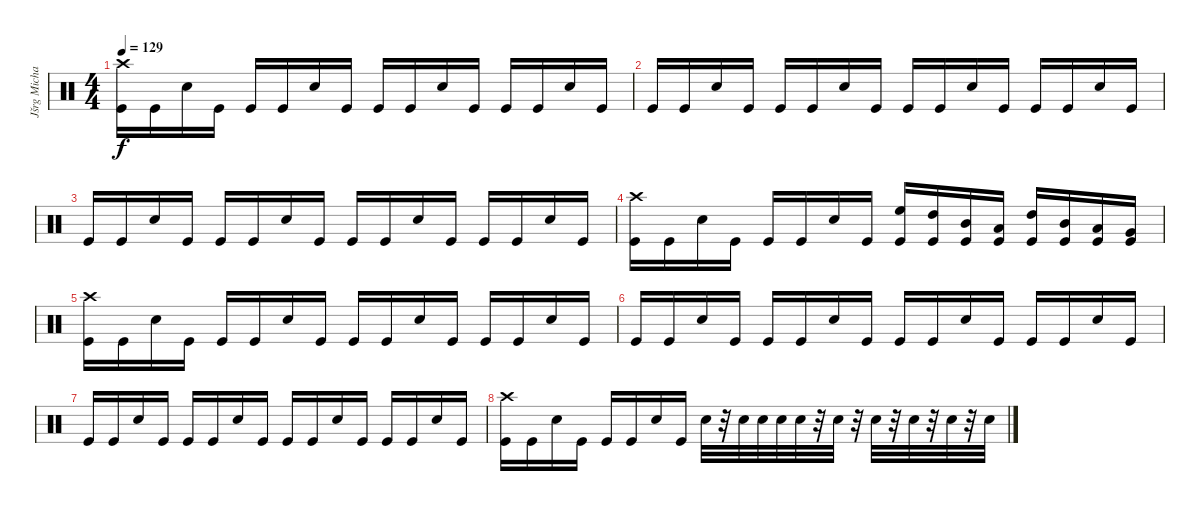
\track ("Jšrg Michael" "Jšrg Micha") {instrument percussion bank 177}
\staff {score}
\articulation defaults
\ts (4 4)
\tempo 129
\clef neutral
\ks c
("Kick (hit)" "Crash high (hit)").16{dy f} "Kick (hit)".16 "Snare (hit) 2".16 "Kick (hit)".16 "Kick (hit)".16 "Kick (hit)".16 "Snare (hit) 2".16 "Kick (hit)".16 "Kick (hit)".16 "Kick (hit)".16 "Snare (hit) 2".16 "Kick (hit)".16 "Kick (hit)".16 "Kick (hit)".16 "Snare (hit) 2".16 "Kick (hit)".16 |
"Kick (hit)".16 "Kick (hit)".16 "Snare (hit) 2".16 "Kick (hit)".16 "Kick (hit)".16 "Kick (hit)".16 "Snare (hit) 2".16 "Kick (hit)".16 "Kick (hit)".16 "Kick (hit)".16 "Snare (hit) 2".16 "Kick (hit)".16 "Kick (hit)".16 "Kick (hit)".16 "Snare (hit) 2".16 "Kick (hit)".16 |
"Kick (hit)".16 "Kick (hit)".16 "Snare (hit) 2".16 "Kick (hit)".16 "Kick (hit)".16 "Kick (hit)".16 "Snare (hit) 2".16 "Kick (hit)".16 "Kick (hit)".16 "Kick (hit)".16 "Snare (hit) 2".16 "Kick (hit)".16 "Kick (hit)".16 "Kick (hit)".16 "Snare (hit) 2".16 "Kick (hit)".16 |
("Kick (hit)" "Crash high (hit)").16 "Kick (hit)".16 "Snare (hit) 2".16 "Kick (hit)".16 "Kick (hit)".16 "Kick (hit)".16 "Snare (hit) 2".16 "Kick (hit)".16 ("Kick (hit)" "High Floor Tom (hit)").16 ("Kick (hit)" "High Tom (hit)").16 ("Kick (hit)" "Mid Tom (hit)").16 ("Kick (hit)" "Low Tom (hit)").16 ("Kick (hit)" "High Tom (hit)").16 ("Kick (hit)" "Mid Tom (hit)").16 ("Kick (hit)" "Low Tom (hit)").16 ("Kick (hit)" "Very Low Tom (hit)").16 |
("Kick (hit)" "Crash high (hit)").16 "Kick (hit)".16 "Snare (hit) 2".16 "Kick (hit)".16 "Kick (hit)".16 "Kick (hit)".16 "Snare (hit) 2".16 "Kick (hit)".16 "Kick (hit)".16 "Kick (hit)".16 "Snare (hit) 2".16 "Kick (hit)".16 "Kick (hit)".16 "Kick (hit)".16 "Snare (hit) 2".16 "Kick (hit)".16 |
"Kick (hit)".16 "Kick (hit)".16 "Snare (hit) 2".16 "Kick (hit)".16 "Kick (hit)".16 "Kick (hit)".16 "Snare (hit) 2".16 "Kick (hit)".16 "Kick (hit)".16 "Kick (hit)".16 "Snare (hit) 2".16 "Kick (hit)".16 "Kick (hit)".16 "Kick (hit)".16 "Snare (hit) 2".16 "Kick (hit)".16 |
"Kick (hit)".16 "Kick (hit)".16 "Snare (hit) 2".16 "Kick (hit)".16 "Kick (hit)".16 "Kick (hit)".16 "Snare (hit) 2".16 "Kick (hit)".16 "Kick (hit)".16 "Kick (hit)".16 "Snare (hit) 2".16 "Kick (hit)".16 "Kick (hit)".16 "Kick (hit)".16 "Snare (hit) 2".16 "Kick (hit)".16 |
("Kick (hit)" "Crash high (hit)").16 "Kick (hit)".16 "Snare (hit) 2".16 "Kick (hit)".16 "Kick (hit)".16 "Kick (hit)".16 "Snare (hit) 2".16 "Kick (hit)".16 "Snare (hit) 2".32 r.32 "Snare (hit) 2".32 "Snare (hit) 2".32 "Snare (hit) 2".32 "Snare (hit) 2".32 r.32 "Snare (hit) 2".32 r.32 "Snare (hit) 2".32 r.32 "Snare (hit) 2".32 r.32 "Snare (hit) 2".32 r.32 "Snare (hit) 2".32
